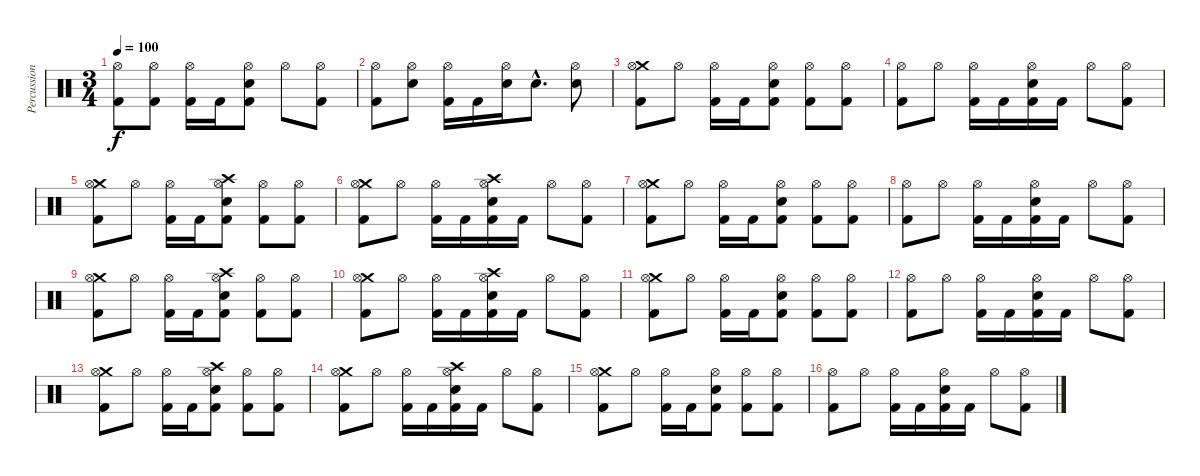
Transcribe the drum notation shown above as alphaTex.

\track ("Percussion" "Percussion") {instrument percussion}
\staff {score}
\articulation defaults
\ts (3 4)
\tempo 100
\clef neutral
\ks c
("Hi-Hat (open)" "Kick (hit) 2").8{dy f} ("Hi-Hat (open)" "Kick (hit) 2").8 ("Hi-Hat (open)" "Kick (hit) 2").16 "Kick (hit) 2".16 ("Hi-Hat (open)" "Electric Snare (hit)" "Kick (hit) 2").8 "Hi-Hat (open)".8 ("Hi-Hat (open)" "Kick (hit) 2").8 |
("Hi-Hat (open)" "Kick (hit) 2").8 ("Hi-Hat (open)" "Electric Snare (hit)").8 ("Hi-Hat (open)" "Kick (hit) 2").16 "Kick (hit) 2".16 ("Hi-Hat (open)" "Electric Snare (hit)").16 "Electric Snare (hit)"{hac}.8{d} ("Hi-Hat (open)" "Electric Snare (hit)").8 |
("Crash medium (hit)" "Hi-Hat (open)" "Kick (hit) 2").8 "Hi-Hat (open)".8 ("Hi-Hat (open)" "Kick (hit) 2").16 "Kick (hit) 2".16 ("Hi-Hat (open)" "Electric Snare (hit)" "Kick (hit) 2").8 ("Hi-Hat (open)" "Kick (hit) 2").8 ("Hi-Hat (open)" "Kick (hit) 2").8 |
("Hi-Hat (open)" "Kick (hit) 2").8 "Hi-Hat (open)".8 ("Hi-Hat (open)" "Kick (hit) 2").16 "Kick (hit) 2".16 ("Hi-Hat (open)" "Electric Snare (hit)" "Kick (hit) 2").16 "Kick (hit) 2".16 "Hi-Hat (open)".8 ("Hi-Hat (open)" "Kick (hit) 2").8 |
("Crash medium (hit)" "Hi-Hat (open)" "Kick (hit) 2").8 "Hi-Hat (open)".8 ("Hi-Hat (open)" "Kick (hit) 2").16 "Kick (hit) 2".16 ("Crash high (hit)" "Hi-Hat (open)" "Electric Snare (hit)" "Kick (hit) 2").8 ("Hi-Hat (open)" "Kick (hit) 2").8 ("Hi-Hat (open)" "Kick (hit) 2").8 |
("Crash medium (hit)" "Hi-Hat (open)" "Kick (hit) 2").8 "Hi-Hat (open)".8 ("Hi-Hat (open)" "Kick (hit) 2").16 "Kick (hit) 2".16 ("Crash high (hit)" "Hi-Hat (open)" "Electric Snare (hit)" "Kick (hit) 2").16 "Kick (hit) 2".16 "Hi-Hat (open)".8 ("Hi-Hat (open)" "Kick (hit) 2").8 |
("Crash medium (hit)" "Hi-Hat (open)" "Kick (hit) 2").8 "Hi-Hat (open)".8 ("Hi-Hat (open)" "Kick (hit) 2").16 "Kick (hit) 2".16 ("Hi-Hat (open)" "Electric Snare (hit)" "Kick (hit) 2").8 ("Hi-Hat (open)" "Kick (hit) 2").8 ("Hi-Hat (open)" "Kick (hit) 2").8 |
("Hi-Hat (open)" "Kick (hit) 2").8 "Hi-Hat (open)".8 ("Hi-Hat (open)" "Kick (hit) 2").16 "Kick (hit) 2".16 ("Hi-Hat (open)" "Electric Snare (hit)" "Kick (hit) 2").16 "Kick (hit) 2".16 "Hi-Hat (open)".8 ("Hi-Hat (open)" "Kick (hit) 2").8 |
("Crash medium (hit)" "Hi-Hat (open)" "Kick (hit) 2").8 "Hi-Hat (open)".8 ("Hi-Hat (open)" "Kick (hit) 2").16 "Kick (hit) 2".16 ("Crash high (hit)" "Hi-Hat (open)" "Electric Snare (hit)" "Kick (hit) 2").8 ("Hi-Hat (open)" "Kick (hit) 2").8 ("Hi-Hat (open)" "Kick (hit) 2").8 |
("Crash medium (hit)" "Hi-Hat (open)" "Kick (hit) 2").8 "Hi-Hat (open)".8 ("Hi-Hat (open)" "Kick (hit) 2").16 "Kick (hit) 2".16 ("Crash high (hit)" "Hi-Hat (open)" "Electric Snare (hit)" "Kick (hit) 2").16 "Kick (hit) 2".16 "Hi-Hat (open)".8 ("Hi-Hat (open)" "Kick (hit) 2").8 |
("Crash medium (hit)" "Hi-Hat (open)" "Kick (hit) 2").8 "Hi-Hat (open)".8 ("Hi-Hat (open)" "Kick (hit) 2").16 "Kick (hit) 2".16 ("Hi-Hat (open)" "Electric Snare (hit)" "Kick (hit) 2").8 ("Hi-Hat (open)" "Kick (hit) 2").8 ("Hi-Hat (open)" "Kick (hit) 2").8 |
("Hi-Hat (open)" "Kick (hit) 2").8 "Hi-Hat (open)".8 ("Hi-Hat (open)" "Kick (hit) 2").16 "Kick (hit) 2".16 ("Hi-Hat (open)" "Electric Snare (hit)" "Kick (hit) 2").16 "Kick (hit) 2".16 "Hi-Hat (open)".8 ("Hi-Hat (open)" "Kick (hit) 2").8 |
("Crash medium (hit)" "Hi-Hat (open)" "Kick (hit) 2").8 "Hi-Hat (open)".8 ("Hi-Hat (open)" "Kick (hit) 2").16 "Kick (hit) 2".16 ("Crash high (hit)" "Hi-Hat (open)" "Electric Snare (hit)" "Kick (hit) 2").8 ("Hi-Hat (open)" "Kick (hit) 2").8 ("Hi-Hat (open)" "Kick (hit) 2").8 |
("Crash medium (hit)" "Hi-Hat (open)" "Kick (hit) 2").8 "Hi-Hat (open)".8 ("Hi-Hat (open)" "Kick (hit) 2").16 "Kick (hit) 2".16 ("Crash high (hit)" "Hi-Hat (open)" "Electric Snare (hit)" "Kick (hit) 2").16 "Kick (hit) 2".16 "Hi-Hat (open)".8 ("Hi-Hat (open)" "Kick (hit) 2").8 |
("Crash medium (hit)" "Hi-Hat (open)" "Kick (hit) 2").8 "Hi-Hat (open)".8 ("Hi-Hat (open)" "Kick (hit) 2").16 "Kick (hit) 2".16 ("Hi-Hat (open)" "Electric Snare (hit)" "Kick (hit) 2").8 ("Hi-Hat (open)" "Kick (hit) 2").8 ("Hi-Hat (open)" "Kick (hit) 2").8 |
("Hi-Hat (open)" "Kick (hit) 2").8 "Hi-Hat (open)".8 ("Hi-Hat (open)" "Kick (hit) 2").16 "Kick (hit) 2".16 ("Hi-Hat (open)" "Electric Snare (hit)" "Kick (hit) 2").16 "Kick (hit) 2".16 "Hi-Hat (open)".8 ("Hi-Hat (open)" "Kick (hit) 2").8
